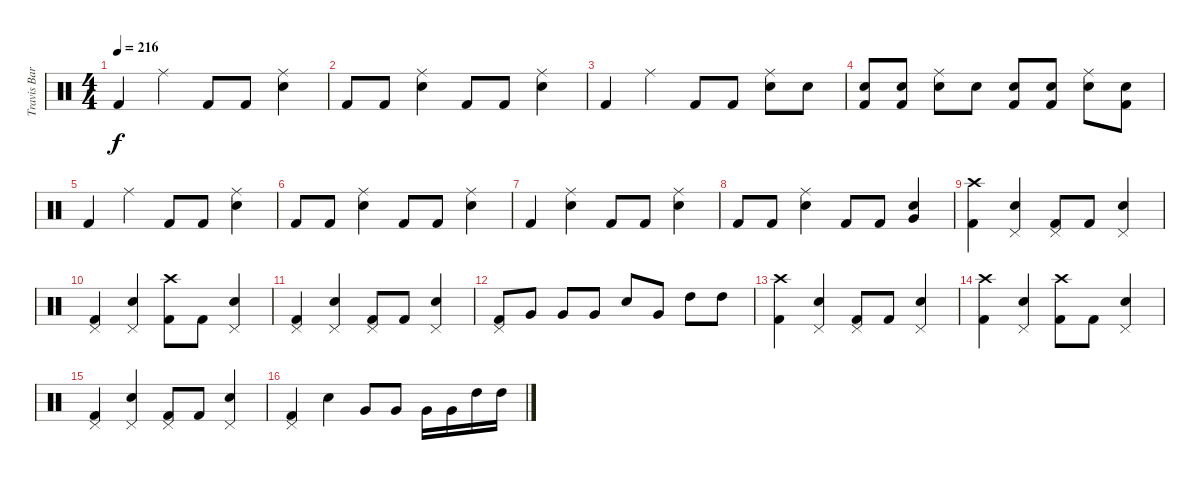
\track ("Travis Barker (Drums)" "Travis Bar") {instrument percussion}
\staff {score}
\articulation defaults
\ts (4 4)
\tempo 216
\clef neutral
\ks c "Kick (hit) 2".4{dy f} "Ride (middle)".4 "Kick (hit) 2".8 "Kick (hit) 2".8
("Ride (middle)" "Electric Snare (hit)").4 |
"Kick (hit) 2".8 "Kick (hit) 2".8 ("Ride (middle)" "Electric Snare (hit)").4 "Kick (hit) 2".8 "Kick (hit) 2".8 ("Ride (middle)" "Electric Snare (hit)").4 |
"Kick (hit) 2".4 "Ride (middle)".4 "Kick (hit) 2".8 "Kick (hit) 2".8 ("Ride (middle)" "Electric Snare (hit)").8 "Electric Snare (hit)".8 |
("Electric Snare (hit)" "Kick (hit) 2").8 ("Electric Snare (hit)" "Kick (hit) 2").8 ("Ride (middle)" "Electric Snare (hit)").8 "Electric Snare (hit)".8 ("Electric Snare (hit)" "Kick (hit) 2").8 ("Electric Snare (hit)" "Kick (hit) 2").8 ("Ride (middle)" "Electric Snare (hit)").8 ("Electric Snare (hit)" "Kick (hit) 2").8 |
"Kick (hit) 2".4 "Ride (middle)".4 "Kick (hit) 2".8 "Kick (hit) 2".8 ("Ride (middle)" "Electric Snare (hit)").4 |
"Kick (hit) 2".8 "Kick (hit) 2".8 ("Ride (middle)" "Electric Snare (hit)").4 "Kick (hit) 2".8 "Kick (hit) 2".8 ("Ride (middle)" "Electric Snare (hit)").4 |
"Kick (hit) 2".4 ("Ride (middle)" "Electric Snare (hit)").4 "Kick (hit) 2".8 "Kick (hit) 2".8 ("Ride (middle)" "Electric Snare (hit)").4 |
"Kick (hit) 2".8 "Kick (hit) 2".8 ("Ride (middle)" "Electric Snare (hit)").4 "Kick (hit) 2".8 "Kick (hit) 2".8 ("Very Low Tom (hit)" "Electric Snare (hit)").4 |
("Crash high (hit)" "Kick (hit) 2").4 ("Pedal Hi-Hat (hit)" "Electric Snare (hit)").4 ("Pedal Hi-Hat (hit)" "Kick (hit) 2").8 "Kick (hit) 2".8 ("Pedal Hi-Hat (hit)" "Electric Snare (hit)").4 |
("Pedal Hi-Hat (hit)" "Kick (hit) 2").4 ("Pedal Hi-Hat (hit)" "Electric Snare (hit)").4 ("Crash high (hit)" "Kick (hit) 2").8 "Kick (hit) 2".8 ("Pedal Hi-Hat (hit)" "Electric Snare (hit)").4 |
("Pedal Hi-Hat (hit)" "Kick (hit) 2").4 ("Pedal Hi-Hat (hit)" "Electric Snare (hit)").4 ("Pedal Hi-Hat (hit)" "Kick (hit) 2").8 "Kick (hit) 2".8 ("Pedal Hi-Hat (hit)" "Electric Snare (hit)").4 |
("Pedal Hi-Hat (hit)" "Kick (hit) 2").8 "Very Low Tom (hit)".8 "Very Low Tom (hit)".8 "Very Low Tom (hit)".8 "Electric Snare (hit)".8 "Very Low Tom (hit)".8 "High Tom (hit)".8 "High Tom (hit)".8 |
("Crash high (hit)" "Kick (hit) 2").4 ("Pedal Hi-Hat (hit)" "Electric Snare (hit)").4 ("Pedal Hi-Hat (hit)" "Kick (hit) 2").8 "Kick (hit) 2".8 ("Pedal Hi-Hat (hit)" "Electric Snare (hit)").4 |
("Crash high (hit)" "Kick (hit) 2").4 ("Pedal Hi-Hat (hit)" "Electric Snare (hit)").4 ("Crash high (hit)" "Kick (hit) 2").8 "Kick (hit) 2".8 ("Pedal Hi-Hat (hit)" "Electric Snare (hit)").4 |
("Pedal Hi-Hat (hit)" "Kick (hit) 2").4 ("Pedal Hi-Hat (hit)" "Electric Snare (hit)").4 ("Pedal Hi-Hat (hit)" "Kick (hit) 2").8 "Kick (hit) 2".8 ("Pedal Hi-Hat (hit)" "Electric Snare (hit)").4 |
("Pedal Hi-Hat (hit)" "Kick (hit) 2").4 "Electric Snare (hit)".4 "Very Low Tom (hit)".8 "Very Low Tom (hit)".8 "Very Low Tom (hit)".16 "Very Low Tom (hit)".16 "High Tom (hit)".16 "High Tom (hit)".16
